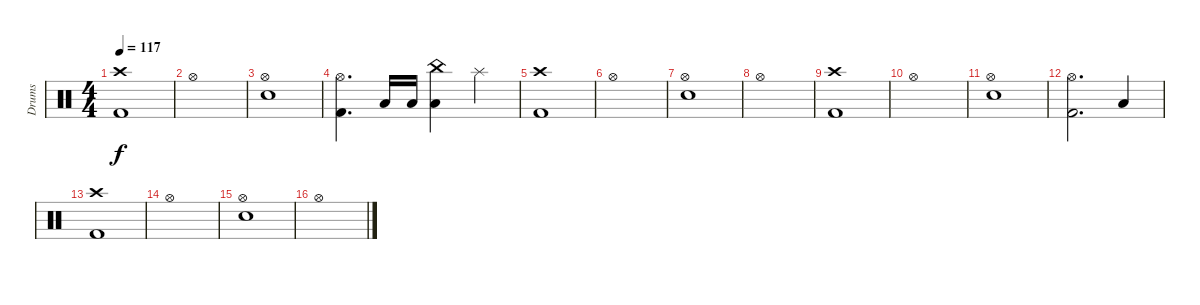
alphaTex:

\track ("Drums" "Drums") {instrument percussion}
\staff {score}
\articulation defaults
\ts (4 4)
\tempo 117
\clef neutral
\ks c
("Crash high (hit)" "Kick (hit) 2").1{dy f} |
"Hi-Hat (open)".1 |
("Hi-Hat (open)" "Snare (hit) 2").1 |
("Hi-Hat (open)" "Kick (hit) 2").4{d} "Low Tom (hit)".16 "Low Tom (hit)".16 ("China (hit)" "Low Tom (hit)").4 "Splash (hit)".4 |
("Crash high (hit)" "Kick (hit) 2").1 |
"Hi-Hat (open)".1 |
("Hi-Hat (open)" "Snare (hit) 2").1 |
"Hi-Hat (open)".1 |
("Crash high (hit)" "Kick (hit) 2").1 |
"Hi-Hat (open)".1 |
("Hi-Hat (open)" "Snare (hit) 2").1 |
("Hi-Hat (open)" "Kick (hit) 2").2{d} "Low Tom (hit)".4 |
("Crash high (hit)" "Kick (hit) 2").1 |
"Hi-Hat (open)".1 |
("Hi-Hat (open)" "Snare (hit) 2").1 |
"Hi-Hat (open)".1
